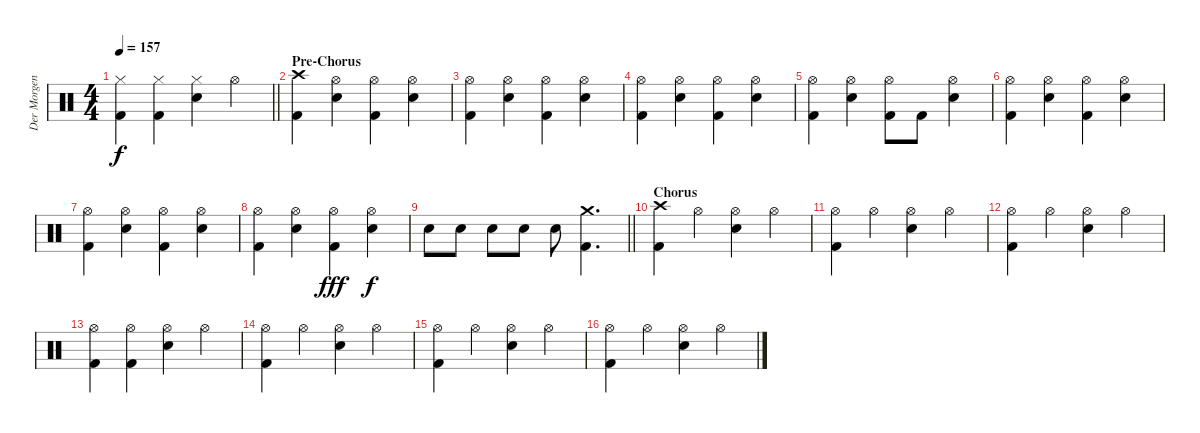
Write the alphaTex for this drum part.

\track ("Der Morgenstern" "Der Morgen") {instrument percussion}
\staff {score}
\articulation defaults
\ts (4 4)
\tempo 157
\clef neutral
\barLineRight lightlight
\ks c
("Hi-Hat (closed)" "Kick (hit) 2").4{dy f} ("Hi-Hat (closed)" "Kick (hit) 2").4 ("Hi-Hat (closed)" "Electric Snare (hit)").4 "Hi-Hat (open)".4 |
\section ("" "Pre-Chorus")
("Crash high (hit)" "Kick (hit) 2").4 ("Hi-Hat (open)" "Electric Snare (hit)").4 ("Hi-Hat (open)" "Kick (hit) 2").4 ("Hi-Hat (open)" "Electric Snare (hit)").4 |
("Hi-Hat (open)" "Kick (hit) 2").4 ("Hi-Hat (open)" "Electric Snare (hit)").4 ("Hi-Hat (open)" "Kick (hit) 2").4 ("Hi-Hat (open)" "Electric Snare (hit)").4 |
("Hi-Hat (open)" "Kick (hit) 2").4 ("Hi-Hat (open)" "Electric Snare (hit)").4 ("Hi-Hat (open)" "Kick (hit) 2").4 ("Hi-Hat (open)" "Electric Snare (hit)").4 |
("Hi-Hat (open)" "Kick (hit) 2").4 ("Hi-Hat (open)" "Electric Snare (hit)").4 ("Hi-Hat (open)" "Kick (hit) 2").8 "Kick (hit) 2".8 ("Hi-Hat (open)" "Electric Snare (hit)").4 |
("Hi-Hat (open)" "Kick (hit) 2").4 ("Hi-Hat (open)" "Electric Snare (hit)").4 ("Hi-Hat (open)" "Kick (hit) 2").4 ("Hi-Hat (open)" "Electric Snare (hit)").4 |
("Hi-Hat (open)" "Kick (hit) 2").4 ("Hi-Hat (open)" "Electric Snare (hit)").4 ("Hi-Hat (open)" "Kick (hit) 2").4 ("Hi-Hat (open)" "Electric Snare (hit)").4 |
("Hi-Hat (open)" "Kick (hit) 2").4 ("Hi-Hat (open)" "Electric Snare (hit)").4 ("Hi-Hat (open)" "Kick (hit) 2").4{dy fff} ("Hi-Hat (open)" "Electric Snare (hit)").4{dy f} |
\barLineRight lightlight "Electric Snare (hit)".8 "Electric Snare (hit)".8 "Electric Snare (hit)".8 "Electric Snare (hit)".8 "Electric Snare (hit)".8
("Crash medium (hit)" "Kick (hit) 2").4{d} |
\section ("" "Chorus")
("Crash high (hit)" "Kick (hit) 2").4 "Hi-Hat (open)".4 ("Hi-Hat (open)" "Electric Snare (hit)").4 "Hi-Hat (open)".4 |
("Hi-Hat (open)" "Kick (hit) 2").4 "Hi-Hat (open)".4 ("Hi-Hat (open)" "Electric Snare (hit)").4 "Hi-Hat (open)".4 |
("Hi-Hat (open)" "Kick (hit) 2").4 "Hi-Hat (open)".4 ("Hi-Hat (open)" "Electric Snare (hit)").4 "Hi-Hat (open)".4 |
("Hi-Hat (open)" "Kick (hit) 2").4 ("Hi-Hat (open)" "Kick (hit) 2").4 ("Hi-Hat (open)" "Electric Snare (hit)").4 "Hi-Hat (open)".4 |
("Hi-Hat (open)" "Kick (hit) 2").4 "Hi-Hat (open)".4 ("Hi-Hat (open)" "Electric Snare (hit)").4 "Hi-Hat (open)".4 |
("Hi-Hat (open)" "Kick (hit) 2").4 "Hi-Hat (open)".4 ("Hi-Hat (open)" "Electric Snare (hit)").4 "Hi-Hat (open)".4 |
("Hi-Hat (open)" "Kick (hit) 2").4 "Hi-Hat (open)".4 ("Hi-Hat (open)" "Electric Snare (hit)").4 "Hi-Hat (open)".4
